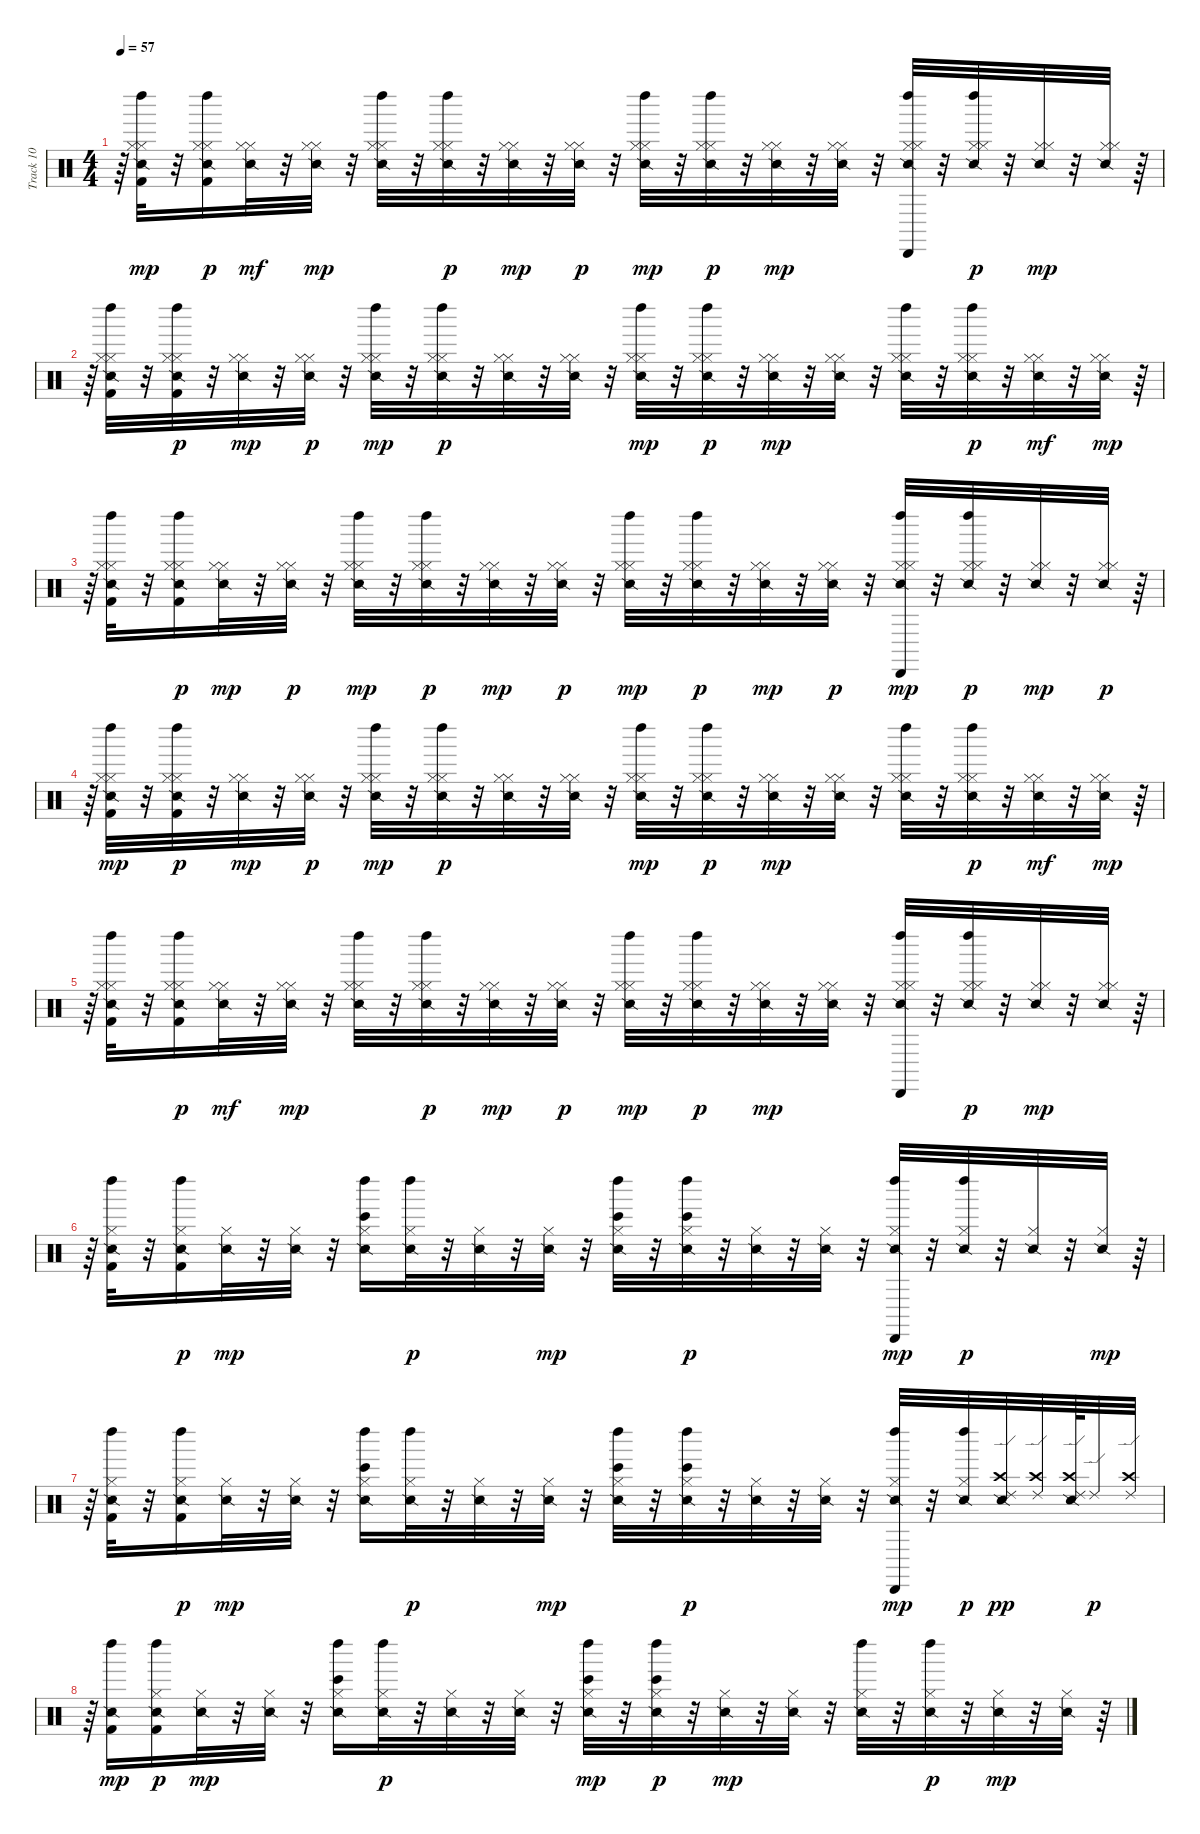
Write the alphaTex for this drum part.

\track ("Track 10" "Track 10") {instrument percussion}
\staff {score}
\articulation defaults
\ts (4 4)
\tempo 57
\clef neutral
\ks c
r.64{dy mp} ("Snare (side stick) 2" "Kick (hit) 2" "Hi-Hat (closed)" "Hi-Hat (closed)" "Left Maraca (hit)").32 r.32 ("Snare (side stick) 2" "Kick (hit) 2" "Hi-Hat (closed)" "Hi-Hat (closed)" "Left Maraca (hit)").16{dy p} ("Snare (side stick) 2" "Hi-Hat (closed)" "Hi-Hat (closed)").32{dy mf} r.32 ("Snare (side stick) 2" "Hi-Hat (closed)" "Hi-Hat (closed)").32{dy mp} r.32 ("Snare (side stick) 2" "Hi-Hat (closed)" "Hi-Hat (closed)" "Left Maraca (hit)").32 r.32 ("Snare (side stick) 2" "Hi-Hat (closed)" "Hi-Hat (closed)" "Left Maraca (hit)").32{dy p} r.32 ("Snare (side stick) 2" "Hi-Hat (closed)" "Hi-Hat (closed)").32{dy mp} r.32 ("Snare (side stick) 2" "Hi-Hat (closed)" "Hi-Hat (closed)").32{dy p} r.32 ("Snare (side stick) 2" "Hi-Hat (closed)" "Hi-Hat (closed)" "Left Maraca (hit)").32{dy mp} r.32 ("Snare (side stick) 2" "Hi-Hat (closed)" "Hi-Hat (closed)" "Left Maraca (hit)").32{dy p} r.32 ("Snare (side stick) 2" "Hi-Hat (closed)" "Hi-Hat (closed)").32{dy mp} r.32 ("Snare (side stick) 2" "Hi-Hat (closed)" "Hi-Hat (closed)").32 r.32 ("Snare (side stick) 2" "Hi-Hat (closed)" "Hi-Hat (closed)" "Left Maraca (hit)" "Cabasa (hit)").32 r.32 ("Snare (side stick) 2" "Hi-Hat (closed)" "Hi-Hat (closed)" "Left Maraca (hit)").32{dy p} r.32 ("Snare (side stick) 2" "Hi-Hat (closed)" "Hi-Hat (closed)").32{dy mp} r.32 ("Snare (side stick) 2" "Hi-Hat (closed)" "Hi-Hat (closed)").32 r.64 |
r.64 ("Snare (side stick) 2" "Kick (hit) 2" "Hi-Hat (closed)" "Hi-Hat (closed)" "Left Maraca (hit)").32 r.32 ("Snare (side stick) 2" "Kick (hit) 2" "Hi-Hat (closed)" "Hi-Hat (closed)" "Left Maraca (hit)").32{dy p} r.32 ("Snare (side stick) 2" "Hi-Hat (closed)" "Hi-Hat (closed)").32{dy mp} r.32 ("Snare (side stick) 2" "Hi-Hat (closed)" "Hi-Hat (closed)").32{dy p} r.32 ("Snare (side stick) 2" "Hi-Hat (closed)" "Hi-Hat (closed)" "Left Maraca (hit)").32{dy mp} r.32 ("Snare (side stick) 2" "Hi-Hat (closed)" "Hi-Hat (closed)" "Left Maraca (hit)").32{dy p} r.32 ("Snare (side stick) 2" "Hi-Hat (closed)" "Hi-Hat (closed)").32 r.32 ("Snare (side stick) 2" "Hi-Hat (closed)" "Hi-Hat (closed)").32 r.32 ("Snare (side stick) 2" "Hi-Hat (closed)" "Hi-Hat (closed)" "Left Maraca (hit)").32{dy mp} r.32 ("Snare (side stick) 2" "Hi-Hat (closed)" "Hi-Hat (closed)" "Left Maraca (hit)").32{dy p} r.32 ("Snare (side stick) 2" "Hi-Hat (closed)" "Hi-Hat (closed)").32{dy mp} r.32 ("Snare (side stick) 2" "Hi-Hat (closed)" "Hi-Hat (closed)").32 r.32 ("Snare (side stick) 2" "Hi-Hat (closed)" "Hi-Hat (closed)" "Left Maraca (hit)").32 r.32 ("Snare (side stick) 2" "Hi-Hat (closed)" "Hi-Hat (closed)" "Left Maraca (hit)").32{dy p} r.32 ("Snare (side stick) 2" "Hi-Hat (closed)" "Hi-Hat (closed)").32{dy mf} r.32 ("Snare (side stick) 2" "Hi-Hat (closed)" "Hi-Hat (closed)").32{dy mp} r.64 |
r.64 ("Snare (side stick) 2" "Kick (hit) 2" "Hi-Hat (closed)" "Hi-Hat (closed)" "Left Maraca (hit)").32 r.32 ("Snare (side stick) 2" "Kick (hit) 2" "Hi-Hat (closed)" "Hi-Hat (closed)" "Left Maraca (hit)").16{dy p} ("Snare (side stick) 2" "Hi-Hat (closed)" "Hi-Hat (closed)").32{dy mp} r.32 ("Snare (side stick) 2" "Hi-Hat (closed)" "Hi-Hat (closed)").32{dy p} r.32 ("Snare (side stick) 2" "Hi-Hat (closed)" "Hi-Hat (closed)" "Left Maraca (hit)").32{dy mp} r.32 ("Snare (side stick) 2" "Hi-Hat (closed)" "Hi-Hat (closed)" "Left Maraca (hit)").32{dy p} r.32 ("Snare (side stick) 2" "Hi-Hat (closed)" "Hi-Hat (closed)").32{dy mp} r.32 ("Snare (side stick) 2" "Hi-Hat (closed)" "Hi-Hat (closed)").32{dy p} r.32 ("Snare (side stick) 2" "Hi-Hat (closed)" "Hi-Hat (closed)" "Left Maraca (hit)").32{dy mp} r.32 ("Snare (side stick) 2" "Hi-Hat (closed)" "Hi-Hat (closed)" "Left Maraca (hit)").32{dy p} r.32 ("Snare (side stick) 2" "Hi-Hat (closed)" "Hi-Hat (closed)").32{dy mp} r.32 ("Snare (side stick) 2" "Hi-Hat (closed)" "Hi-Hat (closed)").32{dy p} r.32 ("Snare (side stick) 2" "Hi-Hat (closed)" "Hi-Hat (closed)" "Left Maraca (hit)" "Cabasa (hit)").32{dy mp} r.32 ("Snare (side stick) 2" "Hi-Hat (closed)" "Hi-Hat (closed)" "Left Maraca (hit)").32{dy p} r.32 ("Snare (side stick) 2" "Hi-Hat (closed)" "Hi-Hat (closed)").32{dy mp} r.32 ("Snare (side stick) 2" "Hi-Hat (closed)" "Hi-Hat (closed)").32{dy p} r.64 |
r.64 ("Snare (side stick) 2" "Kick (hit) 2" "Hi-Hat (closed)" "Hi-Hat (closed)" "Left Maraca (hit)").32{dy mp} r.32 ("Snare (side stick) 2" "Kick (hit) 2" "Hi-Hat (closed)" "Hi-Hat (closed)" "Left Maraca (hit)").32{dy p} r.32 ("Snare (side stick) 2" "Hi-Hat (closed)" "Hi-Hat (closed)").32{dy mp} r.32 ("Snare (side stick) 2" "Hi-Hat (closed)" "Hi-Hat (closed)").32{dy p} r.32 ("Snare (side stick) 2" "Hi-Hat (closed)" "Hi-Hat (closed)" "Left Maraca (hit)").32{dy mp} r.32 ("Snare (side stick) 2" "Hi-Hat (closed)" "Hi-Hat (closed)" "Left Maraca (hit)").32{dy p} r.32 ("Snare (side stick) 2" "Hi-Hat (closed)" "Hi-Hat (closed)").32 r.32 ("Snare (side stick) 2" "Hi-Hat (closed)" "Hi-Hat (closed)").32 r.32 ("Snare (side stick) 2" "Hi-Hat (closed)" "Hi-Hat (closed)" "Left Maraca (hit)").32{dy mp} r.32 ("Snare (side stick) 2" "Hi-Hat (closed)" "Hi-Hat (closed)" "Left Maraca (hit)").32{dy p} r.32 ("Snare (side stick) 2" "Hi-Hat (closed)" "Hi-Hat (closed)").32{dy mp} r.32 ("Snare (side stick) 2" "Hi-Hat (closed)" "Hi-Hat (closed)").32 r.32 ("Snare (side stick) 2" "Hi-Hat (closed)" "Hi-Hat (closed)" "Left Maraca (hit)").32 r.32 ("Snare (side stick) 2" "Hi-Hat (closed)" "Hi-Hat (closed)" "Left Maraca (hit)").32{dy p} r.32 ("Snare (side stick) 2" "Hi-Hat (closed)" "Hi-Hat (closed)").32{dy mf} r.32 ("Snare (side stick) 2" "Hi-Hat (closed)" "Hi-Hat (closed)").32{dy mp} r.64 |
r.64 ("Snare (side stick) 2" "Kick (hit) 2" "Hi-Hat (closed)" "Hi-Hat (closed)" "Left Maraca (hit)").32 r.32 ("Snare (side stick) 2" "Kick (hit) 2" "Hi-Hat (closed)" "Hi-Hat (closed)" "Left Maraca (hit)").16{dy p} ("Snare (side stick) 2" "Hi-Hat (closed)" "Hi-Hat (closed)").32{dy mf} r.32 ("Snare (side stick) 2" "Hi-Hat (closed)" "Hi-Hat (closed)").32{dy mp} r.32 ("Snare (side stick) 2" "Hi-Hat (closed)" "Hi-Hat (closed)" "Left Maraca (hit)").32 r.32 ("Snare (side stick) 2" "Hi-Hat (closed)" "Hi-Hat (closed)" "Left Maraca (hit)").32{dy p} r.32 ("Snare (side stick) 2" "Hi-Hat (closed)" "Hi-Hat (closed)").32{dy mp} r.32 ("Snare (side stick) 2" "Hi-Hat (closed)" "Hi-Hat (closed)").32{dy p} r.32 ("Snare (side stick) 2" "Hi-Hat (closed)" "Hi-Hat (closed)" "Left Maraca (hit)").32{dy mp} r.32 ("Snare (side stick) 2" "Hi-Hat (closed)" "Hi-Hat (closed)" "Left Maraca (hit)").32{dy p} r.32 ("Snare (side stick) 2" "Hi-Hat (closed)" "Hi-Hat (closed)").32{dy mp} r.32 ("Snare (side stick) 2" "Hi-Hat (closed)" "Hi-Hat (closed)").32 r.32 ("Snare (side stick) 2" "Hi-Hat (closed)" "Hi-Hat (closed)" "Left Maraca (hit)" "Cabasa (hit)").32 r.32 ("Snare (side stick) 2" "Hi-Hat (closed)" "Hi-Hat (closed)" "Left Maraca (hit)").32{dy p} r.32 ("Snare (side stick) 2" "Hi-Hat (closed)" "Hi-Hat (closed)").32{dy mp} r.32 ("Snare (side stick) 2" "Hi-Hat (closed)" "Hi-Hat (closed)").32 r.64 |
r.64 ("Snare (side stick) 2" "Kick (hit) 2" "Hi-Hat (closed)" "Left Maraca (hit)").32 r.32 ("Snare (side stick) 2" "Kick (hit) 2" "Hi-Hat (closed)" "Left Maraca (hit)").16{dy p} ("Snare (side stick) 2" "Hi-Hat (closed)").32{dy mp} r.32 ("Snare (side stick) 2" "Hi-Hat (closed)").32 r.32 ("Bongo High (hit)" "Snare (side stick) 2" "Hi-Hat (closed)" "Left Maraca (hit)").16 ("Snare (side stick) 2" "Hi-Hat (closed)" "Left Maraca (hit)").32{dy p} r.32 ("Snare (side stick) 2" "Hi-Hat (closed)").32 r.32 ("Snare (side stick) 2" "Hi-Hat (closed)").32{dy mp} r.32 ("Bongo High (hit)" "Snare (side stick) 2" "Hi-Hat (closed)" "Left Maraca (hit)").32 r.32 ("Bongo High (hit)" "Snare (side stick) 2" "Hi-Hat (closed)" "Left Maraca (hit)").32{dy p} r.32 ("Snare (side stick) 2" "Hi-Hat (closed)").32 r.32 ("Snare (side stick) 2" "Hi-Hat (closed)").32 r.32 ("Snare (side stick) 2" "Hi-Hat (closed)" "Left Maraca (hit)" "Cabasa (hit)").32{dy mp} r.32 ("Snare (side stick) 2" "Hi-Hat (closed)" "Left Maraca (hit)").32{dy p} r.32 ("Snare (side stick) 2" "Hi-Hat (closed)").32 r.32 ("Snare (side stick) 2" "Hi-Hat (closed)").32{dy mp} r.64 |
r.64 ("Snare (side stick) 2" "Kick (hit) 2" "Hi-Hat (closed)" "Left Maraca (hit)").32 r.32 ("Snare (side stick) 2" "Kick (hit) 2" "Hi-Hat (closed)" "Left Maraca (hit)").16{dy p} ("Snare (side stick) 2" "Hi-Hat (closed)").32{dy mp} r.32 ("Snare (side stick) 2" "Hi-Hat (closed)").32 r.32 ("Bongo High (hit)" "Snare (side stick) 2" "Hi-Hat (closed)" "Left Maraca (hit)").16 ("Snare (side stick) 2" "Hi-Hat (closed)" "Left Maraca (hit)").32{dy p} r.32 ("Snare (side stick) 2" "Hi-Hat (closed)").32 r.32 ("Snare (side stick) 2" "Hi-Hat (closed)").32{dy mp} r.32 ("Bongo High (hit)" "Snare (side stick) 2" "Hi-Hat (closed)" "Left Maraca (hit)").32 r.32 ("Bongo High (hit)" "Snare (side stick) 2" "Hi-Hat (closed)" "Left Maraca (hit)").32{dy p} r.32 ("Snare (side stick) 2" "Hi-Hat (closed)").32 r.32 ("Snare (side stick) 2" "Hi-Hat (closed)").32 r.32 ("Snare (side stick) 2" "Hi-Hat (closed)" "Left Maraca (hit)" "Cabasa (hit)").32{dy mp} r.32 ("Snare (side stick) 2" "Hi-Hat (closed)" "Left Maraca (hit)").32{dy p} ("Ride (edge) 2" "Crash high (hit)" "Snare (side stick) 2").32{dy pp} ("Ride (edge) 2" "Crash high (hit)").32 ("Ride (edge) 2" "Crash high (hit)" "Snare (side stick) 2").64 "Ride (edge) 2".32{dy p} ("Crash high (hit)" "Ride (edge) 2").32 |
r.64 ("Snare (side stick) 2" "Kick (hit) 2" "Left Maraca (hit)").16{dy mp} ("Snare (side stick) 2" "Kick (hit) 2" "Hi-Hat (closed)" "Left Maraca (hit)").16{dy p} ("Snare (side stick) 2" "Hi-Hat (closed)").32{dy mp} r.32 ("Snare (side stick) 2" "Hi-Hat (closed)").32 r.32 ("Bongo High (hit)" "Snare (side stick) 2" "Hi-Hat (closed)" "Left Maraca (hit)").16 ("Snare (side stick) 2" "Hi-Hat (closed)" "Left Maraca (hit)").32{dy p} r.32 ("Snare (side stick) 2" "Hi-Hat (closed)").32 r.32 ("Snare (side stick) 2" "Hi-Hat (closed)").32 r.32 ("Bongo High (hit)" "Snare (side stick) 2" "Hi-Hat (closed)" "Left Maraca (hit)").32{dy mp} r.32 ("Bongo High (hit)" "Snare (side stick) 2" "Hi-Hat (closed)" "Left Maraca (hit)").32{dy p} r.32 ("Snare (side stick) 2" "Hi-Hat (closed)").32{dy mp} r.32 ("Snare (side stick) 2" "Hi-Hat (closed)").32 r.32 ("Snare (side stick) 2" "Hi-Hat (closed)" "Left Maraca (hit)").32 r.32 ("Snare (side stick) 2" "Hi-Hat (closed)" "Left Maraca (hit)").32{dy p} r.32 ("Snare (side stick) 2" "Hi-Hat (closed)").32{dy mp} r.32 ("Snare (side stick) 2" "Hi-Hat (closed)").32 r.64
